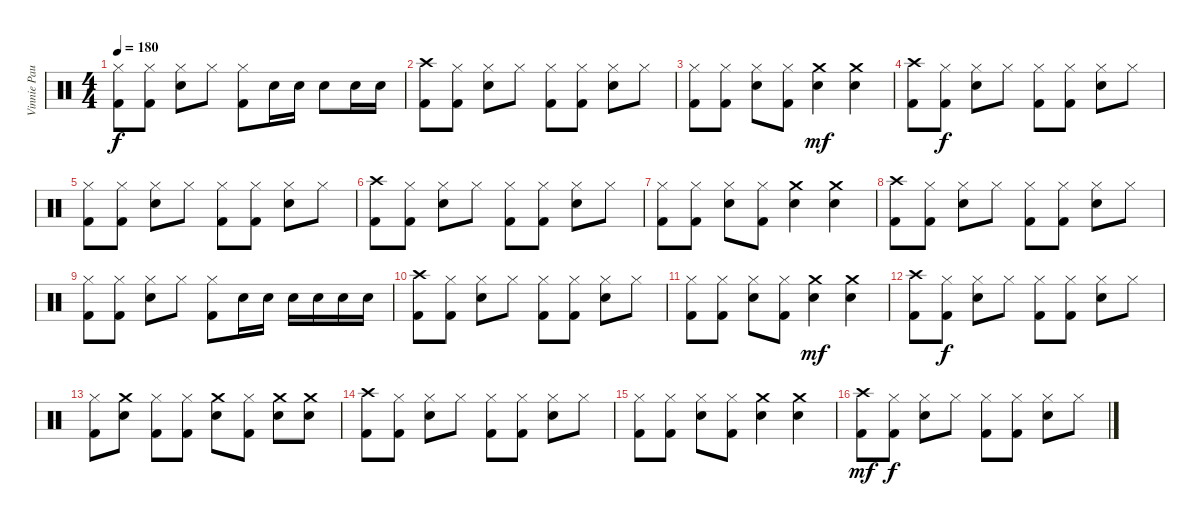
\track ("Vinnie Paul" "Vinnie Pau") {instrument percussion}
\staff {score}
\articulation defaults
\ts (4 4)
\tempo 180
\clef neutral
\ks c
("Hi-Hat (closed)" "Kick (hit) 2").8{dy f} ("Hi-Hat (closed)" "Kick (hit) 2").8 ("Hi-Hat (closed)" "Electric Snare (hit)").8 "Hi-Hat (closed)".8 ("Hi-Hat (closed)" "Kick (hit) 2").8 "Electric Snare (hit)".16 "Electric Snare (hit)".16 "Electric Snare (hit)".8 "Electric Snare (hit)".16 "Electric Snare (hit)".16 |
("Crash high (hit)" "Kick (hit) 2").8 ("Hi-Hat (closed)" "Kick (hit) 2").8 ("Hi-Hat (closed)" "Electric Snare (hit)").8 "Hi-Hat (closed)".8 ("Hi-Hat (closed)" "Kick (hit) 2").8 ("Hi-Hat (closed)" "Kick (hit) 2").8 ("Hi-Hat (closed)" "Electric Snare (hit)").8 "Hi-Hat (closed)".8 |
("Hi-Hat (closed)" "Kick (hit) 2").8 ("Hi-Hat (closed)" "Kick (hit) 2").8 ("Hi-Hat (closed)" "Electric Snare (hit)").8 ("Hi-Hat (closed)" "Kick (hit) 2").8 ("Crash medium (hit)" "Electric Snare (hit)").4{dy mf} ("Crash medium (hit)" "Electric Snare (hit)").4 |
("Crash high (hit)" "Kick (hit) 2").8 ("Hi-Hat (closed)" "Kick (hit) 2").8{dy f} ("Hi-Hat (closed)" "Electric Snare (hit)").8 "Hi-Hat (closed)".8 ("Hi-Hat (closed)" "Kick (hit) 2").8 ("Hi-Hat (closed)" "Kick (hit) 2").8 ("Hi-Hat (closed)" "Electric Snare (hit)").8 "Hi-Hat (closed)".8 |
("Hi-Hat (closed)" "Kick (hit) 2").8 ("Hi-Hat (closed)" "Kick (hit) 2").8 ("Hi-Hat (closed)" "Electric Snare (hit)").8 "Hi-Hat (closed)".8 ("Hi-Hat (closed)" "Kick (hit) 2").8 ("Hi-Hat (closed)" "Kick (hit) 2").8 ("Hi-Hat (closed)" "Electric Snare (hit)").8 "Hi-Hat (closed)".8 |
("Crash high (hit)" "Kick (hit) 2").8 ("Hi-Hat (closed)" "Kick (hit) 2").8 ("Hi-Hat (closed)" "Electric Snare (hit)").8 "Hi-Hat (closed)".8 ("Hi-Hat (closed)" "Kick (hit) 2").8 ("Hi-Hat (closed)" "Kick (hit) 2").8 ("Hi-Hat (closed)" "Electric Snare (hit)").8 "Hi-Hat (closed)".8 |
("Hi-Hat (closed)" "Kick (hit) 2").8 ("Hi-Hat (closed)" "Kick (hit) 2").8 ("Hi-Hat (closed)" "Electric Snare (hit)").8 ("Hi-Hat (closed)" "Kick (hit) 2").8 ("Crash medium (hit)" "Electric Snare (hit)").4 ("Crash medium (hit)" "Electric Snare (hit)").4 |
("Crash high (hit)" "Kick (hit) 2").8 ("Hi-Hat (closed)" "Kick (hit) 2").8 ("Hi-Hat (closed)" "Electric Snare (hit)").8 "Hi-Hat (closed)".8 ("Hi-Hat (closed)" "Kick (hit) 2").8 ("Hi-Hat (closed)" "Kick (hit) 2").8 ("Hi-Hat (closed)" "Electric Snare (hit)").8 "Hi-Hat (closed)".8 |
("Hi-Hat (closed)" "Kick (hit) 2").8 ("Hi-Hat (closed)" "Kick (hit) 2").8 ("Hi-Hat (closed)" "Electric Snare (hit)").8 "Hi-Hat (closed)".8 ("Hi-Hat (closed)" "Kick (hit) 2").8 "Electric Snare (hit)".16 "Electric Snare (hit)".16 "Electric Snare (hit)".16 "Electric Snare (hit)".16 "Electric Snare (hit)".16 "Electric Snare (hit)".16 |
("Crash high (hit)" "Kick (hit) 2").8 ("Hi-Hat (closed)" "Kick (hit) 2").8 ("Hi-Hat (closed)" "Electric Snare (hit)").8 "Hi-Hat (closed)".8 ("Hi-Hat (closed)" "Kick (hit) 2").8 ("Hi-Hat (closed)" "Kick (hit) 2").8 ("Hi-Hat (closed)" "Electric Snare (hit)").8 "Hi-Hat (closed)".8 |
("Hi-Hat (closed)" "Kick (hit) 2").8 ("Hi-Hat (closed)" "Kick (hit) 2").8 ("Hi-Hat (closed)" "Electric Snare (hit)").8 ("Hi-Hat (closed)" "Kick (hit) 2").8 ("Crash medium (hit)" "Electric Snare (hit)").4{dy mf} ("Crash medium (hit)" "Electric Snare (hit)").4 |
("Crash high (hit)" "Kick (hit) 2").8 ("Hi-Hat (closed)" "Kick (hit) 2").8{dy f} ("Hi-Hat (closed)" "Electric Snare (hit)").8 "Hi-Hat (closed)".8 ("Hi-Hat (closed)" "Kick (hit) 2").8 ("Hi-Hat (closed)" "Kick (hit) 2").8 ("Hi-Hat (closed)" "Electric Snare (hit)").8 "Hi-Hat (closed)".8 |
("Hi-Hat (closed)" "Kick (hit) 2").8 ("Crash medium (hit)" "Electric Snare (hit)").8 ("Hi-Hat (closed)" "Kick (hit) 2").8 ("Hi-Hat (closed)" "Kick (hit) 2").8 ("Crash medium (hit)" "Electric Snare (hit)").8 ("Hi-Hat (closed)" "Kick (hit) 2").8 ("Crash medium (hit)" "Electric Snare (hit)").8 ("Crash medium (hit)" "Electric Snare (hit)").8 |
("Crash high (hit)" "Kick (hit) 2").8 ("Hi-Hat (closed)" "Kick (hit) 2").8 ("Hi-Hat (closed)" "Electric Snare (hit)").8 "Hi-Hat (closed)".8 ("Hi-Hat (closed)" "Kick (hit) 2").8 ("Hi-Hat (closed)" "Kick (hit) 2").8 ("Hi-Hat (closed)" "Electric Snare (hit)").8 "Hi-Hat (closed)".8 |
("Hi-Hat (closed)" "Kick (hit) 2").8 ("Hi-Hat (closed)" "Kick (hit) 2").8 ("Hi-Hat (closed)" "Electric Snare (hit)").8 ("Hi-Hat (closed)" "Kick (hit) 2").8 ("Crash medium (hit)" "Electric Snare (hit)").4 ("Crash medium (hit)" "Electric Snare (hit)").4 |
("Crash high (hit)" "Kick (hit) 2").8{dy mf} ("Hi-Hat (closed)" "Kick (hit) 2").8{dy f} ("Hi-Hat (closed)" "Electric Snare (hit)").8 "Hi-Hat (closed)".8 ("Hi-Hat (closed)" "Kick (hit) 2").8 ("Hi-Hat (closed)" "Kick (hit) 2").8 ("Hi-Hat (closed)" "Electric Snare (hit)").8 "Hi-Hat (closed)".8
